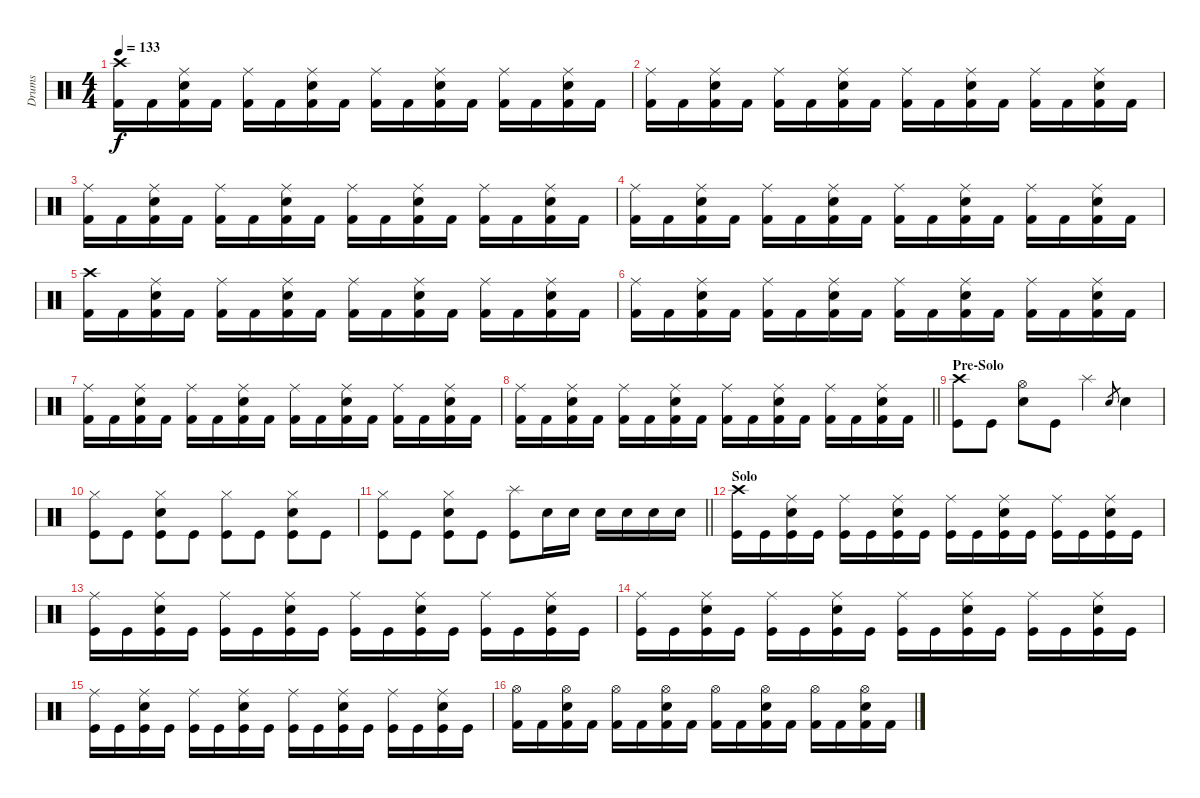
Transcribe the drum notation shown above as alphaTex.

\track ("Drums" "Drums") {instrument percussion}
\staff {score}
\articulation defaults
\ts (4 4)
\tempo 133
\clef neutral
\ks c
("Crash high (hit)" "Kick (hit) 2").16{dy f} "Kick (hit) 2".16 ("Ride (middle)" "Electric Snare (hit)" "Kick (hit) 2").16 "Kick (hit) 2".16 ("Ride (middle)" "Kick (hit) 2").16 "Kick (hit) 2".16 ("Ride (middle)" "Electric Snare (hit)" "Kick (hit) 2").16 "Kick (hit) 2".16 ("Ride (middle)" "Kick (hit) 2").16 "Kick (hit) 2".16 ("Ride (middle)" "Electric Snare (hit)" "Kick (hit) 2").16 "Kick (hit) 2".16 ("Ride (middle)" "Kick (hit) 2").16 "Kick (hit) 2".16 ("Ride (middle)" "Electric Snare (hit)" "Kick (hit) 2").16 "Kick (hit) 2".16 |
("Ride (middle)" "Kick (hit) 2").16 "Kick (hit) 2".16 ("Ride (middle)" "Electric Snare (hit)" "Kick (hit) 2").16 "Kick (hit) 2".16 ("Ride (middle)" "Kick (hit) 2").16 "Kick (hit) 2".16 ("Ride (middle)" "Electric Snare (hit)" "Kick (hit) 2").16 "Kick (hit) 2".16 ("Ride (middle)" "Kick (hit) 2").16 "Kick (hit) 2".16 ("Ride (middle)" "Electric Snare (hit)" "Kick (hit) 2").16 "Kick (hit) 2".16 ("Ride (middle)" "Kick (hit) 2").16 "Kick (hit) 2".16 ("Ride (middle)" "Electric Snare (hit)" "Kick (hit) 2").16 "Kick (hit) 2".16 |
("Ride (middle)" "Kick (hit) 2").16 "Kick (hit) 2".16 ("Ride (middle)" "Electric Snare (hit)" "Kick (hit) 2").16 "Kick (hit) 2".16 ("Ride (middle)" "Kick (hit) 2").16 "Kick (hit) 2".16 ("Ride (middle)" "Electric Snare (hit)" "Kick (hit) 2").16 "Kick (hit) 2".16 ("Ride (middle)" "Kick (hit) 2").16 "Kick (hit) 2".16 ("Ride (middle)" "Electric Snare (hit)" "Kick (hit) 2").16 "Kick (hit) 2".16 ("Ride (middle)" "Kick (hit) 2").16 "Kick (hit) 2".16 ("Ride (middle)" "Electric Snare (hit)" "Kick (hit) 2").16 "Kick (hit) 2".16 |
("Ride (middle)" "Kick (hit) 2").16 "Kick (hit) 2".16 ("Ride (middle)" "Electric Snare (hit)" "Kick (hit) 2").16 "Kick (hit) 2".16 ("Ride (middle)" "Kick (hit) 2").16 "Kick (hit) 2".16 ("Ride (middle)" "Electric Snare (hit)" "Kick (hit) 2").16 "Kick (hit) 2".16 ("Ride (middle)" "Kick (hit) 2").16 "Kick (hit) 2".16 ("Ride (middle)" "Electric Snare (hit)" "Kick (hit) 2").16 "Kick (hit) 2".16 ("Ride (middle)" "Kick (hit) 2").16 "Kick (hit) 2".16 ("Ride (middle)" "Electric Snare (hit)" "Kick (hit) 2").16 "Kick (hit) 2".16 |
("Crash high (hit)" "Kick (hit) 2").16 "Kick (hit) 2".16 ("Ride (middle)" "Electric Snare (hit)" "Kick (hit) 2").16 "Kick (hit) 2".16 ("Ride (middle)" "Kick (hit) 2").16 "Kick (hit) 2".16 ("Ride (middle)" "Electric Snare (hit)" "Kick (hit) 2").16 "Kick (hit) 2".16 ("Ride (middle)" "Kick (hit) 2").16 "Kick (hit) 2".16 ("Ride (middle)" "Electric Snare (hit)" "Kick (hit) 2").16 "Kick (hit) 2".16 ("Ride (middle)" "Kick (hit) 2").16 "Kick (hit) 2".16 ("Ride (middle)" "Electric Snare (hit)" "Kick (hit) 2").16 "Kick (hit) 2".16 |
("Ride (middle)" "Kick (hit) 2").16 "Kick (hit) 2".16 ("Ride (middle)" "Electric Snare (hit)" "Kick (hit) 2").16 "Kick (hit) 2".16 ("Ride (middle)" "Kick (hit) 2").16 "Kick (hit) 2".16 ("Ride (middle)" "Electric Snare (hit)" "Kick (hit) 2").16 "Kick (hit) 2".16 ("Ride (middle)" "Kick (hit) 2").16 "Kick (hit) 2".16 ("Ride (middle)" "Electric Snare (hit)" "Kick (hit) 2").16 "Kick (hit) 2".16 ("Ride (middle)" "Kick (hit) 2").16 "Kick (hit) 2".16 ("Ride (middle)" "Electric Snare (hit)" "Kick (hit) 2").16 "Kick (hit) 2".16 |
("Ride (middle)" "Kick (hit) 2").16 "Kick (hit) 2".16 ("Ride (middle)" "Electric Snare (hit)" "Kick (hit) 2").16 "Kick (hit) 2".16 ("Ride (middle)" "Kick (hit) 2").16 "Kick (hit) 2".16 ("Ride (middle)" "Electric Snare (hit)" "Kick (hit) 2").16 "Kick (hit) 2".16 ("Ride (middle)" "Kick (hit) 2").16 "Kick (hit) 2".16 ("Ride (middle)" "Electric Snare (hit)" "Kick (hit) 2").16 "Kick (hit) 2".16 ("Ride (middle)" "Kick (hit) 2").16 "Kick (hit) 2".16 ("Ride (middle)" "Electric Snare (hit)" "Kick (hit) 2").16 "Kick (hit) 2".16 |
\barLineRight lightlight
("Ride (middle)" "Kick (hit) 2").16 "Kick (hit) 2".16 ("Ride (middle)" "Electric Snare (hit)" "Kick (hit) 2").16 "Kick (hit) 2".16 ("Ride (middle)" "Kick (hit) 2").16 "Kick (hit) 2".16 ("Ride (middle)" "Electric Snare (hit)" "Kick (hit) 2").16 "Kick (hit) 2".16 ("Ride (middle)" "Kick (hit) 2").16 "Kick (hit) 2".16 ("Ride (middle)" "Electric Snare (hit)" "Kick (hit) 2").16 "Kick (hit) 2".16 ("Ride (middle)" "Kick (hit) 2").16 "Kick (hit) 2".16 ("Ride (middle)" "Electric Snare (hit)" "Kick (hit) 2").16 "Kick (hit) 2".16 |
\section ("" "Pre-Solo")
("Crash high (hit)" "Kick (hit)").8 "Kick (hit)".8 ("Hi-Hat (open)" "Electric Snare (hit)").8 "Kick (hit)".8 "Splash (hit)".4 "Electric Snare (hit)".8{gr} "Electric Snare (hit)".4 |
("Hi-Hat (closed)" "Kick (hit)").8 "Kick (hit)".8 ("Hi-Hat (closed)" "Electric Snare (hit)" "Kick (hit)").8 "Kick (hit)".8 ("Hi-Hat (closed)" "Kick (hit)").8 "Kick (hit)".8 ("Hi-Hat (closed)" "Electric Snare (hit)" "Kick (hit)").8 "Kick (hit)".8 |
\barLineRight lightlight
("Hi-Hat (closed)" "Kick (hit)").8 "Kick (hit)".8 ("Hi-Hat (closed)" "Electric Snare (hit)" "Kick (hit)").8 "Kick (hit)".8 ("Splash (hit)" "Kick (hit)").8 "Electric Snare (hit)".16 "Electric Snare (hit)".16 "Electric Snare (hit)".16 "Electric Snare (hit)".16 "Electric Snare (hit)".16 "Electric Snare (hit)".16 |
\section ("" "Solo")
("Crash high (hit)" "Kick (hit)").16 "Kick (hit)".16 ("Ride (middle)" "Electric Snare (hit)" "Kick (hit)").16 "Kick (hit)".16 ("Ride (middle)" "Kick (hit)").16 "Kick (hit)".16 ("Ride (middle)" "Electric Snare (hit)" "Kick (hit)").16 "Kick (hit)".16 ("Ride (middle)" "Kick (hit)").16 "Kick (hit)".16 ("Ride (middle)" "Electric Snare (hit)" "Kick (hit)").16 "Kick (hit)".16 ("Ride (middle)" "Kick (hit)").16 "Kick (hit)".16 ("Ride (middle)" "Electric Snare (hit)" "Kick (hit)").16 "Kick (hit)".16 |
("Ride (middle)" "Kick (hit)").16 "Kick (hit)".16 ("Ride (middle)" "Electric Snare (hit)" "Kick (hit)").16 "Kick (hit)".16 ("Ride (middle)" "Kick (hit)").16 "Kick (hit)".16 ("Ride (middle)" "Electric Snare (hit)" "Kick (hit)").16 "Kick (hit)".16 ("Ride (middle)" "Kick (hit)").16 "Kick (hit)".16 ("Ride (middle)" "Electric Snare (hit)" "Kick (hit)").16 "Kick (hit)".16 ("Ride (middle)" "Kick (hit)").16 "Kick (hit)".16 ("Ride (middle)" "Electric Snare (hit)" "Kick (hit)").16 "Kick (hit)".16 |
("Ride (middle)" "Kick (hit)").16 "Kick (hit)".16 ("Ride (middle)" "Electric Snare (hit)" "Kick (hit)").16 "Kick (hit)".16 ("Ride (middle)" "Kick (hit)").16 "Kick (hit)".16 ("Ride (middle)" "Electric Snare (hit)" "Kick (hit)").16 "Kick (hit)".16 ("Ride (middle)" "Kick (hit)").16 "Kick (hit)".16 ("Ride (middle)" "Electric Snare (hit)" "Kick (hit)").16 "Kick (hit)".16 ("Ride (middle)" "Kick (hit)").16 "Kick (hit)".16 ("Ride (middle)" "Electric Snare (hit)" "Kick (hit)").16 "Kick (hit)".16 |
("Ride (middle)" "Kick (hit)").16 "Kick (hit)".16 ("Ride (middle)" "Electric Snare (hit)" "Kick (hit)").16 "Kick (hit)".16 ("Ride (middle)" "Kick (hit)").16 "Kick (hit)".16 ("Ride (middle)" "Electric Snare (hit)" "Kick (hit)").16 "Kick (hit)".16 ("Ride (middle)" "Kick (hit)").16 "Kick (hit)".16 ("Ride (middle)" "Electric Snare (hit)" "Kick (hit)").16 "Kick (hit)".16 ("Ride (middle)" "Kick (hit)").16 "Kick (hit)".16 ("Ride (middle)" "Electric Snare (hit)" "Kick (hit)").16 "Kick (hit)".16 |
("Hi-Hat (open)" "Kick (hit) 2").16 "Kick (hit) 2".16 ("Hi-Hat (open)" "Electric Snare (hit)" "Kick (hit) 2").16 "Kick (hit) 2".16 ("Hi-Hat (open)" "Kick (hit) 2").16 "Kick (hit) 2".16 ("Hi-Hat (open)" "Electric Snare (hit)" "Kick (hit) 2").16 "Kick (hit) 2".16 ("Hi-Hat (open)" "Kick (hit) 2").16 "Kick (hit) 2".16 ("Hi-Hat (open)" "Electric Snare (hit)" "Kick (hit) 2").16 "Kick (hit) 2".16 ("Hi-Hat (open)" "Kick (hit) 2").16 "Kick (hit) 2".16 ("Hi-Hat (open)" "Electric Snare (hit)" "Kick (hit) 2").16 "Kick (hit) 2".16
